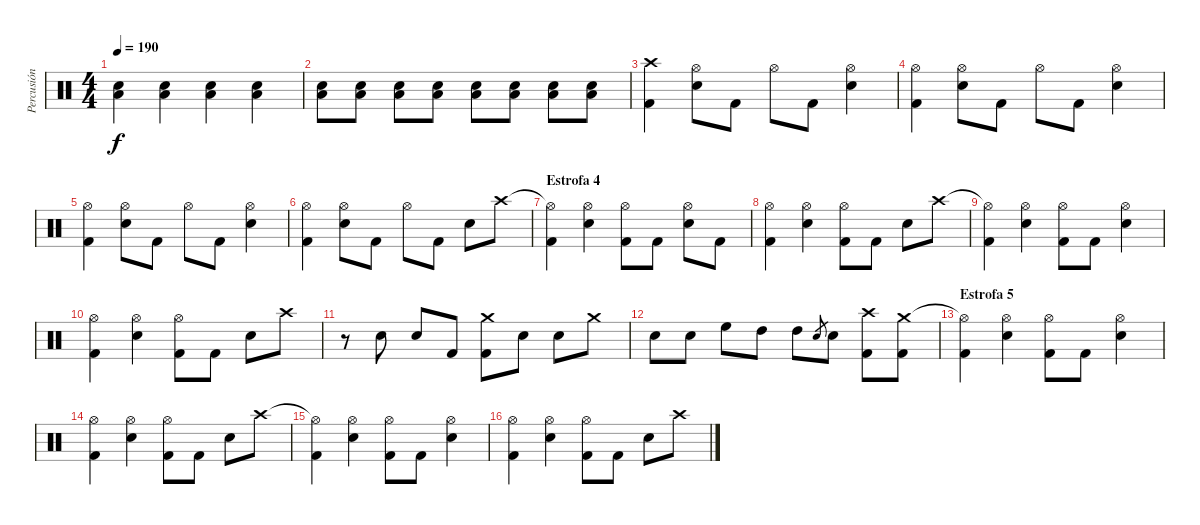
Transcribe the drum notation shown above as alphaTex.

\track ("Percusión" "Percusión") {instrument percussion}
\staff {score}
\articulation defaults
\ts (4 4)
\tempo 190
\clef neutral
\ks c
("Snare (hit) 2" "Low Floor Tom (hit)").4{dy f} ("Snare (hit) 2" "Low Floor Tom (hit)").4 ("Snare (hit) 2" "Low Floor Tom (hit)").4 ("Snare (hit) 2" "Low Floor Tom (hit)").4 |
("Snare (hit) 2" "Low Floor Tom (hit)").8 ("Snare (hit) 2" "Low Floor Tom (hit)").8 ("Snare (hit) 2" "Low Floor Tom (hit)").8 ("Snare (hit) 2" "Low Floor Tom (hit)").8 ("Snare (hit) 2" "Low Floor Tom (hit)").8 ("Snare (hit) 2" "Low Floor Tom (hit)").8 ("Snare (hit) 2" "Low Floor Tom (hit)").8 ("Snare (hit) 2" "Low Floor Tom (hit)").8 |
("Crash high (hit)" "Kick (hit) 2").4 ("Hi-Hat (open)" "Snare (hit) 2").8 "Kick (hit) 2".8 "Hi-Hat (open)".8 "Kick (hit) 2".8 ("Hi-Hat (open)" "Snare (hit) 2").4 |
("Hi-Hat (open)" "Kick (hit) 2").4 ("Hi-Hat (open)" "Snare (hit) 2").8 "Kick (hit) 2".8 "Hi-Hat (open)".8 "Kick (hit) 2".8 ("Hi-Hat (open)" "Snare (hit) 2").4 |
("Hi-Hat (open)" "Kick (hit) 2").4 ("Hi-Hat (open)" "Snare (hit) 2").8 "Kick (hit) 2".8 "Hi-Hat (open)".8 "Kick (hit) 2".8 ("Hi-Hat (open)" "Snare (hit) 2").4 |
("Hi-Hat (open)" "Kick (hit) 2").4 ("Hi-Hat (open)" "Snare (hit) 2").8 "Kick (hit) 2".8 "Hi-Hat (open)".8 "Kick (hit) 2".8 "Snare (hit) 2".8 "Crash high (hit)".8 |
\section ("" "Estrofa 4")
("Hi-Hat (open)"{t} "Kick (hit) 2").4 ("Hi-Hat (open)" "Snare (hit) 2").4 ("Hi-Hat (open)" "Kick (hit) 2").8 "Kick (hit) 2".8 ("Hi-Hat (open)" "Snare (hit) 2").8 "Kick (hit) 2".8 |
("Hi-Hat (open)" "Kick (hit) 2").4 ("Hi-Hat (open)" "Snare (hit) 2").4 ("Hi-Hat (open)" "Kick (hit) 2").8 "Kick (hit) 2".8 "Snare (hit) 2".8 "Crash high (hit)".8 |
("Hi-Hat (open)"{t} "Kick (hit) 2").4 ("Hi-Hat (open)" "Snare (hit) 2").4 ("Hi-Hat (open)" "Kick (hit) 2").8 "Kick (hit) 2".8 ("Hi-Hat (open)" "Snare (hit) 2").4 |
("Hi-Hat (open)" "Kick (hit) 2").4 ("Hi-Hat (open)" "Snare (hit) 2").4 ("Hi-Hat (open)" "Kick (hit) 2").8 "Kick (hit) 2".8 "Snare (hit) 2".8 "Crash high (hit)".8 |
r.8 "Snare (hit) 2".8 "Snare (hit) 2".8 "Kick (hit) 2".8 ("Crash medium (hit)" "Kick (hit) 2").8 "Snare (hit) 2".8 "Snare (hit) 2".8 "Crash medium (hit)".8 |
"Snare (hit) 2".8 "Snare (hit) 2".8 "High Floor Tom (hit)".8 "High Tom (hit)".8 "High Tom (hit)".8 "Snare (hit) 2".8{gr} "Snare (hit) 2".8 ("Crash high (hit)" "Kick (hit) 2").8 ("Crash medium (hit)" "Kick (hit) 2").8 |
\section ("" "Estrofa 5")
("Hi-Hat (open)"{t} "Kick (hit) 2").4 ("Hi-Hat (open)" "Snare (hit) 2").4 ("Hi-Hat (open)" "Kick (hit) 2").8 "Kick (hit) 2".8 ("Hi-Hat (open)" "Snare (hit) 2").4 |
("Hi-Hat (open)" "Kick (hit) 2").4 ("Hi-Hat (open)" "Snare (hit) 2").4 ("Hi-Hat (open)" "Kick (hit) 2").8 "Kick (hit) 2".8 "Snare (hit) 2".8 "Crash high (hit)".8 |
("Hi-Hat (open)"{t} "Kick (hit) 2").4 ("Hi-Hat (open)" "Snare (hit) 2").4 ("Hi-Hat (open)" "Kick (hit) 2").8 "Kick (hit) 2".8 ("Hi-Hat (open)" "Snare (hit) 2").4 |
("Hi-Hat (open)" "Kick (hit) 2").4 ("Hi-Hat (open)" "Snare (hit) 2").4 ("Hi-Hat (open)" "Kick (hit) 2").8 "Kick (hit) 2".8 "Snare (hit) 2".8 "Crash high (hit)".8
